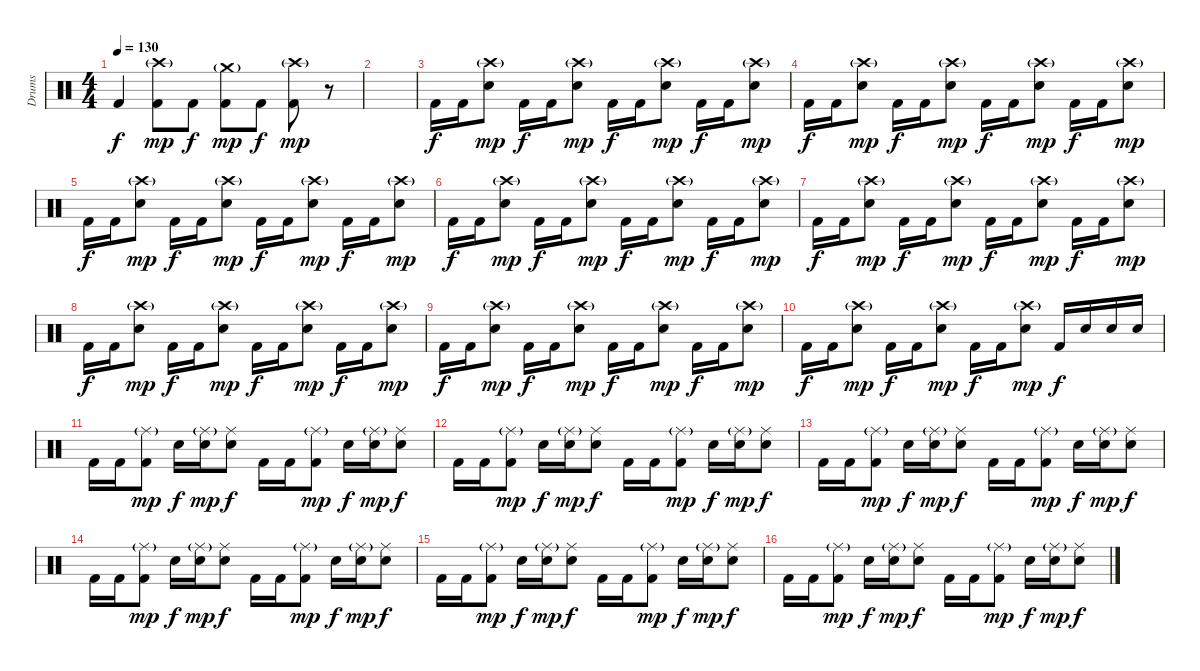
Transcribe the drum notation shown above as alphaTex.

\track ("Drums" "Drums") {instrument percussion}
\staff {score}
\articulation defaults
\ts (4 4)
\tempo 130
\clef neutral
\ks c "Kick (hit) 2".4{dy f}
("Crash high (hit)"{g} "Kick (hit) 2").8{dy mp} "Kick (hit) 2".8{dy f} ("Crash medium (hit)"{g} "Kick (hit) 2").8{dy mp} "Kick (hit) 2".8{dy f} ("Crash high (hit)"{g} "Kick (hit) 2").8{dy mp} r.8 |
|
"Kick (hit) 2".16{dy f} "Kick (hit) 2".16 ("Crash high (hit)"{g} "Electric Snare (hit)").8{dy mp} "Kick (hit) 2".16{dy f} "Kick (hit) 2".16 ("Crash high (hit)"{g} "Electric Snare (hit)").8{dy mp} "Kick (hit) 2".16{dy f} "Kick (hit) 2".16 ("Crash high (hit)"{g} "Electric Snare (hit)").8{dy mp} "Kick (hit) 2".16{dy f} "Kick (hit) 2".16 ("Crash high (hit)"{g} "Electric Snare (hit)").8{dy mp} |
"Kick (hit) 2".16{dy f} "Kick (hit) 2".16 ("Crash high (hit)"{g} "Electric Snare (hit)").8{dy mp} "Kick (hit) 2".16{dy f} "Kick (hit) 2".16 ("Crash high (hit)"{g} "Electric Snare (hit)").8{dy mp} "Kick (hit) 2".16{dy f} "Kick (hit) 2".16 ("Crash high (hit)"{g} "Electric Snare (hit)").8{dy mp} "Kick (hit) 2".16{dy f} "Kick (hit) 2".16 ("Crash high (hit)"{g} "Electric Snare (hit)").8{dy mp} |
"Kick (hit) 2".16{dy f} "Kick (hit) 2".16 ("Crash high (hit)"{g} "Electric Snare (hit)").8{dy mp} "Kick (hit) 2".16{dy f} "Kick (hit) 2".16 ("Crash high (hit)"{g} "Electric Snare (hit)").8{dy mp} "Kick (hit) 2".16{dy f} "Kick (hit) 2".16 ("Crash high (hit)"{g} "Electric Snare (hit)").8{dy mp} "Kick (hit) 2".16{dy f} "Kick (hit) 2".16 ("Crash high (hit)"{g} "Electric Snare (hit)").8{dy mp} |
"Kick (hit) 2".16{dy f} "Kick (hit) 2".16 ("Crash high (hit)"{g} "Electric Snare (hit)").8{dy mp} "Kick (hit) 2".16{dy f} "Kick (hit) 2".16 ("Crash high (hit)"{g} "Electric Snare (hit)").8{dy mp} "Kick (hit) 2".16{dy f} "Kick (hit) 2".16 ("Crash high (hit)"{g} "Electric Snare (hit)").8{dy mp} "Kick (hit) 2".16{dy f} "Kick (hit) 2".16 ("Crash high (hit)"{g} "Electric Snare (hit)").8{dy mp} |
"Kick (hit) 2".16{dy f} "Kick (hit) 2".16 ("Crash high (hit)"{g} "Electric Snare (hit)").8{dy mp} "Kick (hit) 2".16{dy f} "Kick (hit) 2".16 ("Crash high (hit)"{g} "Electric Snare (hit)").8{dy mp} "Kick (hit) 2".16{dy f} "Kick (hit) 2".16 ("Crash high (hit)"{g} "Electric Snare (hit)").8{dy mp} "Kick (hit) 2".16{dy f} "Kick (hit) 2".16 ("Crash high (hit)"{g} "Electric Snare (hit)").8{dy mp} |
"Kick (hit) 2".16{dy f} "Kick (hit) 2".16 ("Crash high (hit)"{g} "Electric Snare (hit)").8{dy mp} "Kick (hit) 2".16{dy f} "Kick (hit) 2".16 ("Crash high (hit)"{g} "Electric Snare (hit)").8{dy mp} "Kick (hit) 2".16{dy f} "Kick (hit) 2".16 ("Crash high (hit)"{g} "Electric Snare (hit)").8{dy mp} "Kick (hit) 2".16{dy f} "Kick (hit) 2".16 ("Crash high (hit)"{g} "Electric Snare (hit)").8{dy mp} |
"Kick (hit) 2".16{dy f} "Kick (hit) 2".16 ("Crash high (hit)"{g} "Electric Snare (hit)").8{dy mp} "Kick (hit) 2".16{dy f} "Kick (hit) 2".16 ("Crash high (hit)"{g} "Electric Snare (hit)").8{dy mp} "Kick (hit) 2".16{dy f} "Kick (hit) 2".16 ("Crash high (hit)"{g} "Electric Snare (hit)").8{dy mp} "Kick (hit) 2".16{dy f} "Kick (hit) 2".16 ("Crash high (hit)"{g} "Electric Snare (hit)").8{dy mp} |
"Kick (hit) 2".16{dy f} "Kick (hit) 2".16 ("Crash high (hit)"{g} "Electric Snare (hit)").8{dy mp} "Kick (hit) 2".16{dy f} "Kick (hit) 2".16 ("Crash high (hit)"{g} "Electric Snare (hit)").8{dy mp} "Kick (hit) 2".16{dy f} "Kick (hit) 2".16 ("Crash high (hit)"{g} "Electric Snare (hit)").8{dy mp} "Kick (hit) 2".16{dy f} "Electric Snare (hit)".16 "Electric Snare (hit)".16 "Electric Snare (hit)".16 |
"Kick (hit) 2".16 "Kick (hit) 2".16 ("Ride (middle)"{g} "Kick (hit) 2").8{dy mp} "Snare (hit) 2".16{dy f} ("Ride (middle)"{g} "Snare (hit) 2").16{dy mp} ("Ride (middle)" "Snare (hit) 2").8{dy f} "Kick (hit) 2".16 "Kick (hit) 2".16 ("Ride (middle)"{g} "Kick (hit) 2").8{dy mp} "Snare (hit) 2".16{dy f} ("Ride (middle)"{g} "Snare (hit) 2").16{dy mp} ("Ride (middle)" "Snare (hit) 2").8{dy f} |
"Kick (hit) 2".16 "Kick (hit) 2".16 ("Ride (middle)"{g} "Kick (hit) 2").8{dy mp} "Snare (hit) 2".16{dy f} ("Ride (middle)"{g} "Snare (hit) 2").16{dy mp} ("Ride (middle)" "Snare (hit) 2").8{dy f} "Kick (hit) 2".16 "Kick (hit) 2".16 ("Ride (middle)"{g} "Kick (hit) 2").8{dy mp} "Snare (hit) 2".16{dy f} ("Ride (middle)"{g} "Snare (hit) 2").16{dy mp} ("Ride (middle)" "Snare (hit) 2").8{dy f} |
"Kick (hit) 2".16 "Kick (hit) 2".16 ("Ride (middle)"{g} "Kick (hit) 2").8{dy mp} "Snare (hit) 2".16{dy f} ("Ride (middle)"{g} "Snare (hit) 2").16{dy mp} ("Ride (middle)" "Snare (hit) 2").8{dy f} "Kick (hit) 2".16 "Kick (hit) 2".16 ("Ride (middle)"{g} "Kick (hit) 2").8{dy mp} "Snare (hit) 2".16{dy f} ("Ride (middle)"{g} "Snare (hit) 2").16{dy mp} ("Ride (middle)" "Snare (hit) 2").8{dy f} |
"Kick (hit) 2".16 "Kick (hit) 2".16 ("Ride (middle)"{g} "Kick (hit) 2").8{dy mp} "Snare (hit) 2".16{dy f} ("Ride (middle)"{g} "Snare (hit) 2").16{dy mp} ("Ride (middle)" "Snare (hit) 2").8{dy f} "Kick (hit) 2".16 "Kick (hit) 2".16 ("Ride (middle)"{g} "Kick (hit) 2").8{dy mp} "Snare (hit) 2".16{dy f} ("Ride (middle)"{g} "Snare (hit) 2").16{dy mp} ("Ride (middle)" "Snare (hit) 2").8{dy f} |
"Kick (hit) 2".16 "Kick (hit) 2".16 ("Ride (middle)"{g} "Kick (hit) 2").8{dy mp} "Snare (hit) 2".16{dy f} ("Ride (middle)"{g} "Snare (hit) 2").16{dy mp} ("Ride (middle)" "Snare (hit) 2").8{dy f} "Kick (hit) 2".16 "Kick (hit) 2".16 ("Ride (middle)"{g} "Kick (hit) 2").8{dy mp} "Snare (hit) 2".16{dy f} ("Ride (middle)"{g} "Snare (hit) 2").16{dy mp} ("Ride (middle)" "Snare (hit) 2").8{dy f} |
"Kick (hit) 2".16 "Kick (hit) 2".16 ("Ride (middle)"{g} "Kick (hit) 2").8{dy mp} "Snare (hit) 2".16{dy f} ("Ride (middle)"{g} "Snare (hit) 2").16{dy mp} ("Ride (middle)" "Snare (hit) 2").8{dy f} "Kick (hit) 2".16 "Kick (hit) 2".16 ("Ride (middle)"{g} "Kick (hit) 2").8{dy mp} "Snare (hit) 2".16{dy f} ("Ride (middle)"{g} "Snare (hit) 2").16{dy mp} ("Ride (middle)" "Snare (hit) 2").8{dy f}
